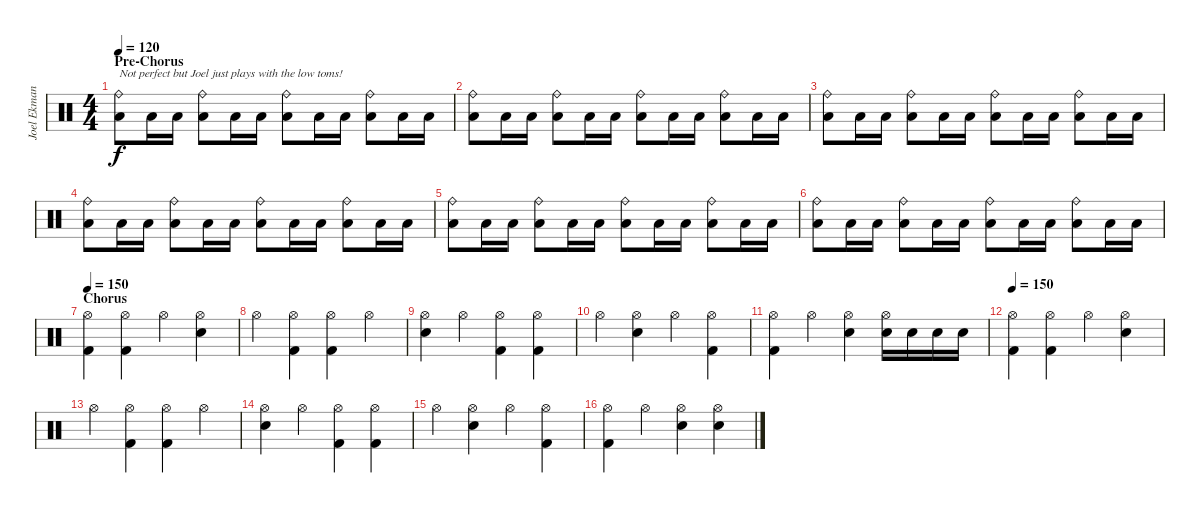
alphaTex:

\track ("Joel Ekman" "Joel Ekman") {instrument percussion}
\staff {score}
\articulation defaults
\ts (4 4)
\section ("" "Pre-Chorus")
\tempo 120
\clef neutral
\ks c
("Low Floor Tom (hit)" "Ride (bell)").8{txt "Not perfect but Joel just plays with the low toms!" dy f} "Low Tom (hit)".16 "Low Tom (hit)".16 ("Low Floor Tom (hit)" "Ride (bell)").8 "Low Tom (hit)".16 "Low Tom (hit)".16 ("Low Floor Tom (hit)" "Ride (bell)").8 "Low Tom (hit)".16 "Low Tom (hit)".16 ("Low Floor Tom (hit)" "Ride (bell)").8 "Low Tom (hit)".16 "Low Tom (hit)".16 |
("Low Floor Tom (hit)" "Ride (bell)").8 "Low Tom (hit)".16 "Low Tom (hit)".16 ("Low Floor Tom (hit)" "Ride (bell)").8 "Low Tom (hit)".16 "Low Tom (hit)".16 ("Low Floor Tom (hit)" "Ride (bell)").8 "Low Tom (hit)".16 "Low Tom (hit)".16 ("Low Floor Tom (hit)" "Ride (bell)").8 "Low Tom (hit)".16 "Low Tom (hit)".16 |
("Low Floor Tom (hit)" "Ride (bell)").8 "Low Tom (hit)".16 "Low Tom (hit)".16 ("Low Floor Tom (hit)" "Ride (bell)").8 "Low Tom (hit)".16 "Low Tom (hit)".16 ("Low Floor Tom (hit)" "Ride (bell)").8 "Low Tom (hit)".16 "Low Tom (hit)".16 ("Low Floor Tom (hit)" "Ride (bell)").8 "Low Tom (hit)".16 "Low Tom (hit)".16 |
("Low Floor Tom (hit)" "Ride (bell)").8 "Low Tom (hit)".16 "Low Tom (hit)".16 ("Low Floor Tom (hit)" "Ride (bell)").8 "Low Tom (hit)".16 "Low Tom (hit)".16 ("Low Floor Tom (hit)" "Ride (bell)").8 "Low Tom (hit)".16 "Low Tom (hit)".16 ("Low Floor Tom (hit)" "Ride (bell)").8 "Low Tom (hit)".16 "Low Tom (hit)".16 |
("Low Floor Tom (hit)" "Ride (bell)").8 "Low Tom (hit)".16 "Low Tom (hit)".16 ("Low Floor Tom (hit)" "Ride (bell)").8 "Low Tom (hit)".16 "Low Tom (hit)".16 ("Low Floor Tom (hit)" "Ride (bell)").8 "Low Tom (hit)".16 "Low Tom (hit)".16 ("Low Floor Tom (hit)" "Ride (bell)").8 "Low Tom (hit)".16 "Low Tom (hit)".16 |
("Low Floor Tom (hit)" "Ride (bell)").8 "Low Tom (hit)".16 "Low Tom (hit)".16 ("Low Floor Tom (hit)" "Ride (bell)").8 "Low Tom (hit)".16 "Low Tom (hit)".16 ("Low Floor Tom (hit)" "Ride (bell)").8 "Low Tom (hit)".16 "Low Tom (hit)".16 ("Low Floor Tom (hit)" "Ride (bell)").8 "Low Tom (hit)".16 "Low Tom (hit)".16 |
\section ("" "Chorus")
\tempo 150
("Hi-Hat (open)" "Kick (hit) 2").4 ("Hi-Hat (open)" "Kick (hit) 2").4 "Hi-Hat (open)".4 ("Hi-Hat (open)" "Electric Snare (hit)").4 |
"Hi-Hat (open)".4 ("Hi-Hat (open)" "Kick (hit) 2").4 ("Hi-Hat (open)" "Kick (hit) 2").4 "Hi-Hat (open)".4 |
("Hi-Hat (open)" "Electric Snare (hit)").4 "Hi-Hat (open)".4 ("Hi-Hat (open)" "Kick (hit) 2").4 ("Hi-Hat (open)" "Kick (hit) 2").4 |
"Hi-Hat (open)".4 ("Hi-Hat (open)" "Electric Snare (hit)").4 "Hi-Hat (open)".4 ("Hi-Hat (open)" "Kick (hit) 2").4 |
("Hi-Hat (open)" "Kick (hit) 2").4 "Hi-Hat (open)".4 ("Hi-Hat (open)" "Electric Snare (hit)").4 ("Hi-Hat (open)" "Electric Snare (hit)").16 "Electric Snare (hit)".16 "Electric Snare (hit)".16 "Electric Snare (hit)".16 |
\tempo 150
("Hi-Hat (open)" "Kick (hit) 2").4 ("Hi-Hat (open)" "Kick (hit) 2").4 "Hi-Hat (open)".4 ("Hi-Hat (open)" "Electric Snare (hit)").4 |
"Hi-Hat (open)".4 ("Hi-Hat (open)" "Kick (hit) 2").4 ("Hi-Hat (open)" "Kick (hit) 2").4 "Hi-Hat (open)".4 |
("Hi-Hat (open)" "Electric Snare (hit)").4 "Hi-Hat (open)".4 ("Hi-Hat (open)" "Kick (hit) 2").4 ("Hi-Hat (open)" "Kick (hit) 2").4 |
"Hi-Hat (open)".4 ("Hi-Hat (open)" "Electric Snare (hit)").4 "Hi-Hat (open)".4 ("Hi-Hat (open)" "Kick (hit) 2").4 |
("Hi-Hat (open)" "Kick (hit) 2").4 "Hi-Hat (open)".4 ("Hi-Hat (open)" "Electric Snare (hit)").4 ("Hi-Hat (open)" "Electric Snare (hit)").4
